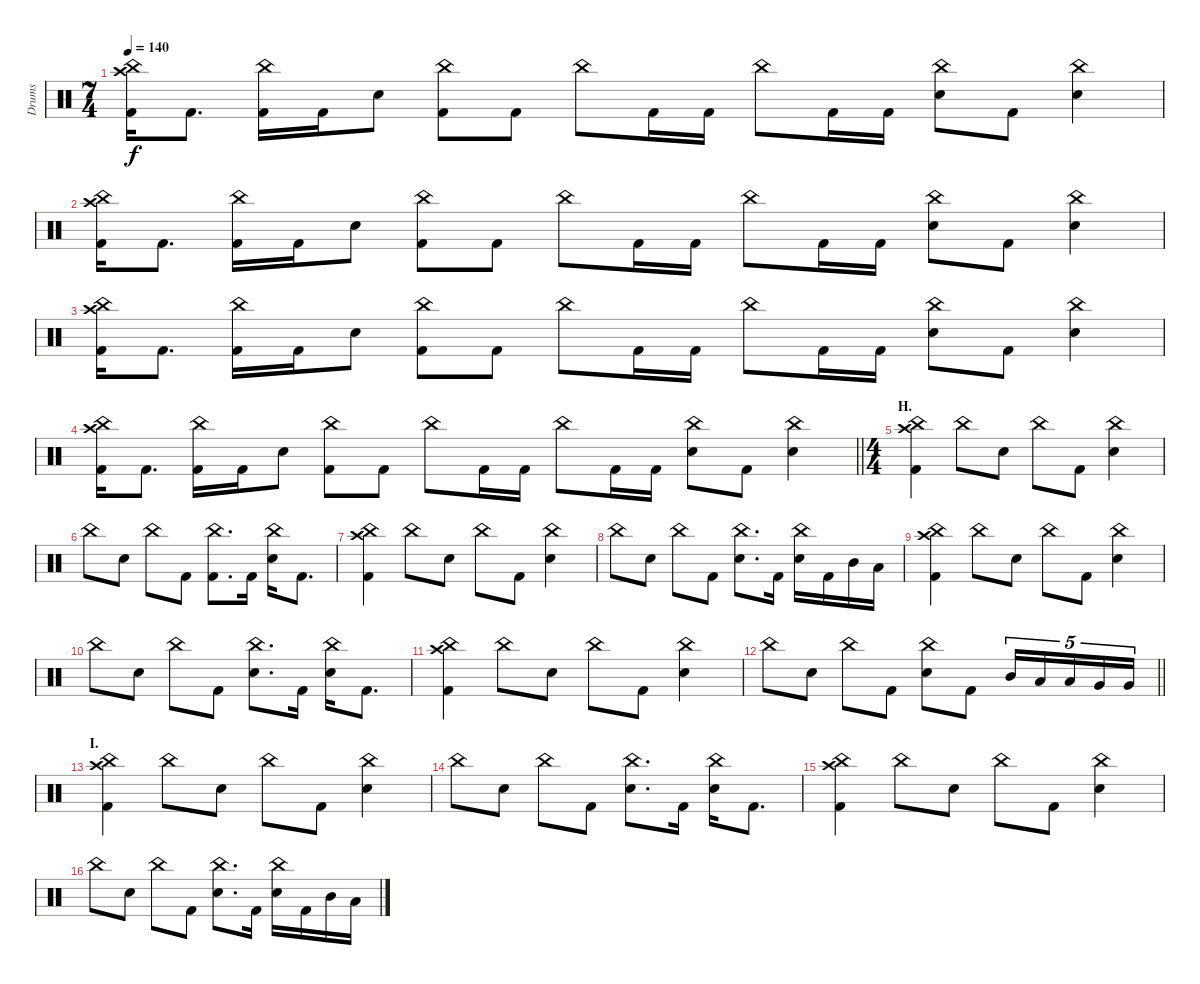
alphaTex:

\track ("Drums" "Drums") {instrument percussion}
\staff {score}
\articulation defaults
\ts (7 4)
\tempo 140
\clef neutral
\ks c
("China (hit)" "Crash high (hit)" "Kick (hit) 2").16{dy f} "Kick (hit) 2".8{d} ("China (hit)" "Kick (hit) 2").16 "Kick (hit) 2".16 "Electric Snare (hit)".8 ("China (hit)" "Kick (hit) 2").8 "Kick (hit) 2".8 "China (hit)".8 "Kick (hit) 2".16 "Kick (hit) 2".16 "China (hit)".8 "Kick (hit) 2".16 "Kick (hit) 2".16 ("China (hit)" "Electric Snare (hit)").8 "Kick (hit) 2".8 ("China (hit)" "Electric Snare (hit)").4 |
("China (hit)" "Crash high (hit)" "Kick (hit) 2").16 "Kick (hit) 2".8{d} ("China (hit)" "Kick (hit) 2").16 "Kick (hit) 2".16 "Electric Snare (hit)".8 ("China (hit)" "Kick (hit) 2").8 "Kick (hit) 2".8 "China (hit)".8 "Kick (hit) 2".16 "Kick (hit) 2".16 "China (hit)".8 "Kick (hit) 2".16 "Kick (hit) 2".16 ("China (hit)" "Electric Snare (hit)").8 "Kick (hit) 2".8 ("China (hit)" "Electric Snare (hit)").4 |
("China (hit)" "Crash high (hit)" "Kick (hit) 2").16 "Kick (hit) 2".8{d} ("China (hit)" "Kick (hit) 2").16 "Kick (hit) 2".16 "Electric Snare (hit)".8 ("China (hit)" "Kick (hit) 2").8 "Kick (hit) 2".8 "China (hit)".8 "Kick (hit) 2".16 "Kick (hit) 2".16 "China (hit)".8 "Kick (hit) 2".16 "Kick (hit) 2".16 ("China (hit)" "Electric Snare (hit)").8 "Kick (hit) 2".8 ("China (hit)" "Electric Snare (hit)").4 |
\barLineRight lightlight
("China (hit)" "Crash high (hit)" "Kick (hit) 2").16 "Kick (hit) 2".8{d} ("China (hit)" "Kick (hit) 2").16 "Kick (hit) 2".16 "Electric Snare (hit)".8 ("China (hit)" "Kick (hit) 2").8 "Kick (hit) 2".8 "China (hit)".8 "Kick (hit) 2".16 "Kick (hit) 2".16 "China (hit)".8 "Kick (hit) 2".16 "Kick (hit) 2".16 ("China (hit)" "Electric Snare (hit)").8 "Kick (hit) 2".8 ("China (hit)" "Electric Snare (hit)").4 |
\ts (4 4)
\section ("" "H.")
("China (hit)" "Crash high (hit)" "Kick (hit) 2").4 "China (hit)".8 "Electric Snare (hit)".8 "China (hit)".8 "Kick (hit) 2".8 ("China (hit)" "Electric Snare (hit)").4 |
"China (hit)".8 "Electric Snare (hit)".8 "China (hit)".8 "Kick (hit) 2".8 ("China (hit)" "Kick (hit) 2").8{d} "Kick (hit) 2".16 ("China (hit)" "Electric Snare (hit)").16 "Kick (hit) 2".8{d} |
("China (hit)" "Crash high (hit)" "Kick (hit) 2").4 "China (hit)".8 "Electric Snare (hit)".8 "China (hit)".8 "Kick (hit) 2".8 ("China (hit)" "Electric Snare (hit)").4 |
"China (hit)".8 "Electric Snare (hit)".8 "China (hit)".8 "Kick (hit) 2".8 ("China (hit)" "Electric Snare (hit)").8{d} "Kick (hit) 2".16 ("China (hit)" "Electric Snare (hit)").16 "Kick (hit) 2".16 "Mid Tom (hit)".16 "Low Tom (hit)".16 |
("China (hit)" "Crash high (hit)" "Kick (hit) 2").4 "China (hit)".8 "Electric Snare (hit)".8 "China (hit)".8 "Kick (hit) 2".8 ("China (hit)" "Electric Snare (hit)").4 |
"China (hit)".8 "Electric Snare (hit)".8 "China (hit)".8 "Kick (hit) 2".8 ("China (hit)" "Electric Snare (hit)").8{d} "Kick (hit) 2".16 ("China (hit)" "Electric Snare (hit)").16 "Kick (hit) 2".8{d} |
("China (hit)" "Crash high (hit)" "Kick (hit) 2").4 "China (hit)".8 "Electric Snare (hit)".8 "China (hit)".8 "Kick (hit) 2".8 ("China (hit)" "Electric Snare (hit)").4 |
\barLineRight lightlight "China (hit)".8 "Electric Snare (hit)".8 "China (hit)".8 "Kick (hit) 2".8
("China (hit)" "Electric Snare (hit)").8 "Kick (hit) 2".8 "Mid Tom (hit)".16{tu (5 4)} "Low Tom (hit)".16{tu (5 4)} "Low Tom (hit)".16{tu (5 4)} "Very Low Tom (hit)".16{tu (5 4)} "Very Low Tom (hit)".16{tu (5 4)} |
\section ("" "I.")
("China (hit)" "Crash high (hit)" "Kick (hit) 2").4 "China (hit)".8 "Electric Snare (hit)".8 "China (hit)".8 "Kick (hit) 2".8 ("China (hit)" "Electric Snare (hit)").4 |
"China (hit)".8 "Electric Snare (hit)".8 "China (hit)".8 "Kick (hit) 2".8 ("China (hit)" "Electric Snare (hit)").8{d} "Kick (hit) 2".16 ("China (hit)" "Electric Snare (hit)").16 "Kick (hit) 2".8{d} |
("China (hit)" "Crash high (hit)" "Kick (hit) 2").4 "China (hit)".8 "Electric Snare (hit)".8 "China (hit)".8 "Kick (hit) 2".8 ("China (hit)" "Electric Snare (hit)").4 |
"China (hit)".8 "Electric Snare (hit)".8 "China (hit)".8 "Kick (hit) 2".8 ("China (hit)" "Electric Snare (hit)").8{d} "Kick (hit) 2".16 ("China (hit)" "Electric Snare (hit)").16 "Kick (hit) 2".16 "Mid Tom (hit)".16 "Low Tom (hit)".16
